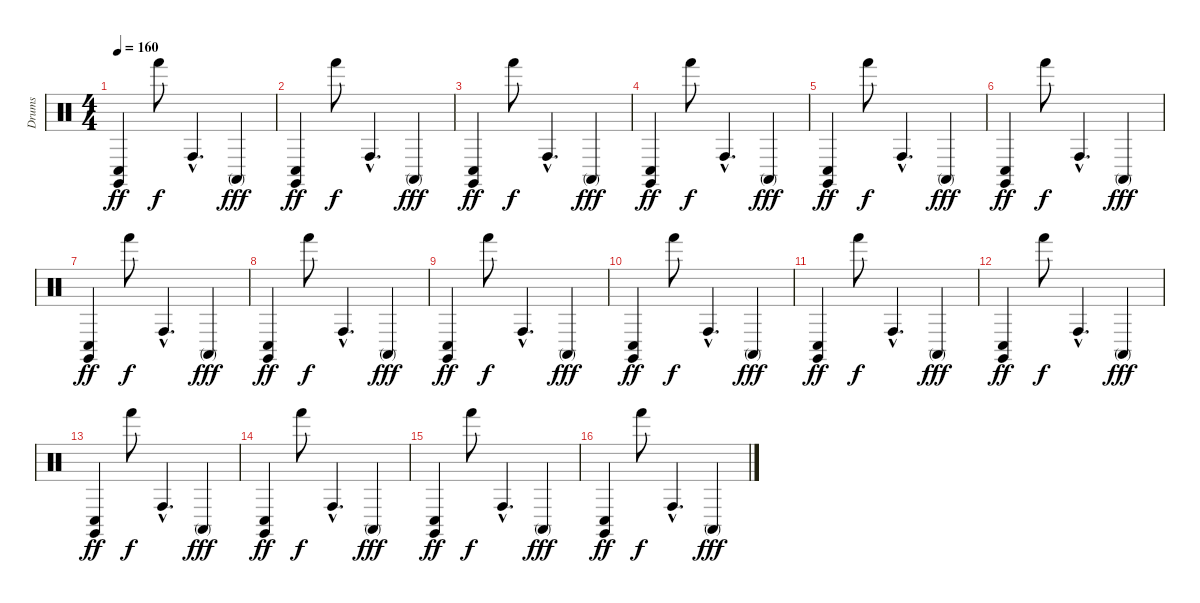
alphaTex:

\track ("Drums" "Drums") {instrument percussion}
\staff {score}
\articulation defaults
\ts (4 4)
\tempo 160
\clef neutral
\ks c
("Claves (hit)" "Conga low (hit)").4{dy ff} "Hand (hit)".8{dy f} "Conga high (hit)"{hac}.4{d} "Conga high (mute)".4{dy fff} |
("Claves (hit)" "Conga low (hit)").4{dy ff} "Hand (hit)".8{dy f} "Conga high (hit)"{hac}.4{d} "Conga high (mute)".4{dy fff} |
("Claves (hit)" "Conga low (hit)").4{dy ff} "Hand (hit)".8{dy f} "Conga high (hit)"{hac}.4{d} "Conga high (mute)".4{dy fff} |
("Claves (hit)" "Conga low (hit)").4{dy ff} "Hand (hit)".8{dy f} "Conga high (hit)"{hac}.4{d} "Conga high (mute)".4{dy fff} |
("Claves (hit)" "Conga low (hit)").4{dy ff} "Hand (hit)".8{dy f} "Conga high (hit)"{hac}.4{d} "Conga high (mute)".4{dy fff} |
("Claves (hit)" "Conga low (hit)").4{dy ff} "Hand (hit)".8{dy f} "Conga high (hit)"{hac}.4{d} "Conga high (mute)".4{dy fff} |
("Claves (hit)" "Conga low (hit)").4{dy ff} "Hand (hit)".8{dy f} "Conga high (hit)"{hac}.4{d} "Conga high (mute)".4{dy fff} |
("Claves (hit)" "Conga low (hit)").4{dy ff} "Hand (hit)".8{dy f} "Conga high (hit)"{hac}.4{d} "Conga high (mute)".4{dy fff} |
("Claves (hit)" "Conga low (hit)").4{dy ff} "Hand (hit)".8{dy f} "Conga high (hit)"{hac}.4{d} "Conga high (mute)".4{dy fff} |
("Claves (hit)" "Conga low (hit)").4{dy ff} "Hand (hit)".8{dy f} "Conga high (hit)"{hac}.4{d} "Conga high (mute)".4{dy fff} |
("Claves (hit)" "Conga low (hit)").4{dy ff} "Hand (hit)".8{dy f} "Conga high (hit)"{hac}.4{d} "Conga high (mute)".4{dy fff} |
("Claves (hit)" "Conga low (hit)").4{dy ff} "Hand (hit)".8{dy f} "Conga high (hit)"{hac}.4{d} "Conga high (mute)".4{dy fff} |
("Claves (hit)" "Conga low (hit)").4{dy ff} "Hand (hit)".8{dy f} "Conga high (hit)"{hac}.4{d} "Conga high (mute)".4{dy fff} |
("Claves (hit)" "Conga low (hit)").4{dy ff} "Hand (hit)".8{dy f} "Conga high (hit)"{hac}.4{d} "Conga high (mute)".4{dy fff} |
("Claves (hit)" "Conga low (hit)").4{dy ff} "Hand (hit)".8{dy f} "Conga high (hit)"{hac}.4{d} "Conga high (mute)".4{dy fff} |
("Claves (hit)" "Conga low (hit)").4{dy ff} "Hand (hit)".8{dy f} "Conga high (hit)"{hac}.4{d} "Conga high (mute)".4{dy fff}
